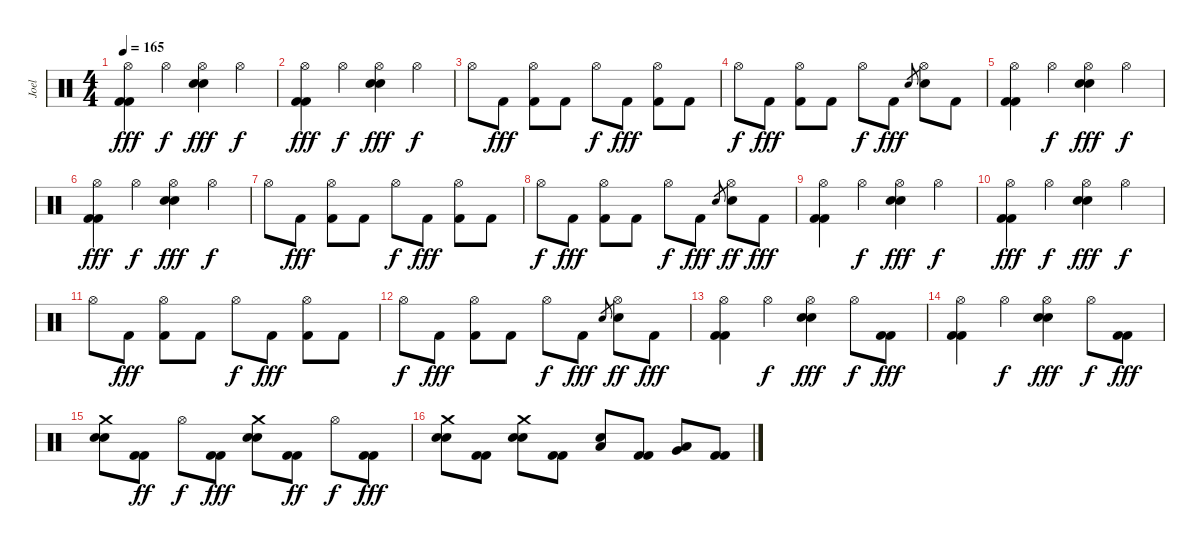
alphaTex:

\track ("Joel" "Joel") {instrument percussion}
\staff {score}
\articulation defaults
\ts (4 4)
\tempo 165
\clef neutral
\ks c
("Kick (hit) 2" "Kick (hit) 2" "Hi-Hat (open)").4{dy fff} "Hi-Hat (open)".4{dy f} ("Electric Snare (hit)" "Electric Snare (hit)" "Hi-Hat (open)").4{dy fff} "Hi-Hat (open)".4{dy f} |
("Kick (hit) 2" "Kick (hit) 2" "Hi-Hat (open)").4{dy fff} "Hi-Hat (open)".4{dy f} ("Electric Snare (hit)" "Electric Snare (hit)" "Hi-Hat (open)").4{dy fff} "Hi-Hat (open)".4{dy f} |
"Hi-Hat (open)".8 "Kick (hit) 2".8{dy fff} ("Kick (hit) 2" "Hi-Hat (open)").8 "Kick (hit) 2".8 "Hi-Hat (open)".8{dy f} "Kick (hit) 2".8{dy fff} ("Kick (hit) 2" "Hi-Hat (open)").8 "Kick (hit) 2".8 |
"Hi-Hat (open)".8{dy f} "Kick (hit) 2".8{dy fff} ("Kick (hit) 2" "Hi-Hat (open)").8 "Kick (hit) 2".8 "Hi-Hat (open)".8{dy f} "Kick (hit) 2".8{dy fff} "Electric Snare (hit)".8{gr} ("Electric Snare (hit)" "Hi-Hat (open)").8 "Kick (hit) 2".8 |
("Kick (hit) 2" "Kick (hit) 2" "Hi-Hat (open)").4 "Hi-Hat (open)".4{dy f} ("Electric Snare (hit)" "Electric Snare (hit)" "Hi-Hat (open)").4{dy fff} "Hi-Hat (open)".4{dy f} |
("Kick (hit) 2" "Kick (hit) 2" "Hi-Hat (open)").4{dy fff} "Hi-Hat (open)".4{dy f} ("Electric Snare (hit)" "Electric Snare (hit)" "Hi-Hat (open)").4{dy fff} "Hi-Hat (open)".4{dy f} |
"Hi-Hat (open)".8 "Kick (hit) 2".8{dy fff} ("Kick (hit) 2" "Hi-Hat (open)").8 "Kick (hit) 2".8 "Hi-Hat (open)".8{dy f} "Kick (hit) 2".8{dy fff} ("Kick (hit) 2" "Hi-Hat (open)").8 "Kick (hit) 2".8 |
"Hi-Hat (open)".8{dy f} "Kick (hit) 2".8{dy fff} ("Kick (hit) 2" "Hi-Hat (open)").8 "Kick (hit) 2".8 "Hi-Hat (open)".8{dy f} "Kick (hit) 2".8{dy fff} "Electric Snare (hit)".8{gr} ("Electric Snare (hit)" "Hi-Hat (open)").8{dy ff} "Kick (hit) 2".8{dy fff} |
("Kick (hit) 2" "Kick (hit) 2" "Hi-Hat (open)").4 "Hi-Hat (open)".4{dy f} ("Electric Snare (hit)" "Electric Snare (hit)" "Hi-Hat (open)").4{dy fff} "Hi-Hat (open)".4{dy f} |
("Kick (hit) 2" "Kick (hit) 2" "Hi-Hat (open)").4{dy fff} "Hi-Hat (open)".4{dy f} ("Electric Snare (hit)" "Electric Snare (hit)" "Hi-Hat (open)").4{dy fff} "Hi-Hat (open)".4{dy f} |
"Hi-Hat (open)".8 "Kick (hit) 2".8{dy fff} ("Kick (hit) 2" "Hi-Hat (open)").8 "Kick (hit) 2".8 "Hi-Hat (open)".8{dy f} "Kick (hit) 2".8{dy fff} ("Kick (hit) 2" "Hi-Hat (open)").8 "Kick (hit) 2".8 |
"Hi-Hat (open)".8{dy f} "Kick (hit) 2".8{dy fff} ("Kick (hit) 2" "Hi-Hat (open)").8 "Kick (hit) 2".8 "Hi-Hat (open)".8{dy f} "Kick (hit) 2".8{dy fff} "Electric Snare (hit)".8{gr} ("Electric Snare (hit)" "Hi-Hat (open)").8{dy ff} "Kick (hit) 2".8{dy fff} |
("Kick (hit) 2" "Kick (hit) 2" "Hi-Hat (open)").4 "Hi-Hat (open)".4{dy f} ("Electric Snare (hit)" "Electric Snare (hit)" "Hi-Hat (open)").4{dy fff} "Hi-Hat (open)".8{dy f} ("Kick (hit) 2" "Kick (hit) 2").8{dy fff} |
("Kick (hit) 2" "Kick (hit) 2" "Hi-Hat (open)").4 "Hi-Hat (open)".4{dy f} ("Electric Snare (hit)" "Electric Snare (hit)" "Hi-Hat (open)").4{dy fff} "Hi-Hat (open)".8{dy f} ("Kick (hit) 2" "Kick (hit) 2").8{dy fff} |
("Crash medium (hit)" "Electric Snare (hit)" "Electric Snare (hit)").8 ("Kick (hit) 2" "Kick (hit) 2").8{dy ff} "Hi-Hat (open)".8{dy f} ("Kick (hit) 2" "Kick (hit) 2").8{dy fff} ("Crash medium (hit)" "Electric Snare (hit)" "Electric Snare (hit)").8 ("Kick (hit) 2" "Kick (hit) 2").8{dy ff} "Hi-Hat (open)".8{dy f} ("Kick (hit) 2" "Kick (hit) 2").8{dy fff} |
("Crash medium (hit)" "Electric Snare (hit)" "Electric Snare (hit)").8 ("Kick (hit) 2" "Kick (hit) 2").8 ("Crash medium (hit)" "Electric Snare (hit)" "Electric Snare (hit)").8 ("Kick (hit) 2" "Kick (hit) 2").8 ("Low Floor Tom (hit)" "Electric Snare (hit)").8 ("Kick (hit) 2" "Kick (hit) 2").8 ("Low Tom (hit)" "Very Low Tom (hit)").8 ("Kick (hit) 2" "Kick (hit) 2").8
